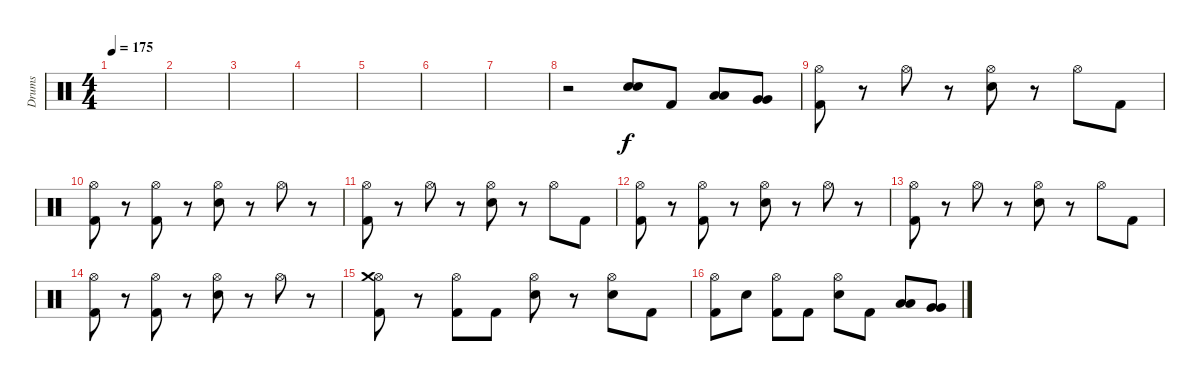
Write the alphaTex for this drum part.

\track ("Drums" "Drums") {instrument percussion}
\staff {score}
\articulation defaults
\ts (4 4)
\tempo 175
\clef neutral
\ks c
|
|
|
|
|
|
|
r.2 ("Electric Snare (hit)" "Electric Snare (hit)").8 "Kick (hit) 2".8 ("Low Tom (hit)" "Low Tom (hit)").8 ("Very Low Tom (hit)" "Very Low Tom (hit)").8 |
("Kick (hit) 2" "Hi-Hat (open)").8 r.8 "Hi-Hat (open)".8 r.8 ("Electric Snare (hit)" "Hi-Hat (open)").8 r.8 "Hi-Hat (open)".8 "Kick (hit) 2".8 |
("Kick (hit) 2" "Hi-Hat (open)").8 r.8 ("Kick (hit) 2" "Hi-Hat (open)").8 r.8 ("Electric Snare (hit)" "Hi-Hat (open)").8 r.8 "Hi-Hat (open)".8 r.8 |
("Kick (hit) 2" "Hi-Hat (open)").8 r.8 "Hi-Hat (open)".8 r.8 ("Electric Snare (hit)" "Hi-Hat (open)").8 r.8 "Hi-Hat (open)".8 "Kick (hit) 2".8 |
("Kick (hit) 2" "Hi-Hat (open)").8 r.8 ("Kick (hit) 2" "Hi-Hat (open)").8 r.8 ("Electric Snare (hit)" "Hi-Hat (open)").8 r.8 "Hi-Hat (open)".8 r.8 |
("Kick (hit) 2" "Hi-Hat (open)").8 r.8 "Hi-Hat (open)".8 r.8 ("Electric Snare (hit)" "Hi-Hat (open)").8 r.8 "Hi-Hat (open)".8 "Kick (hit) 2".8 |
("Kick (hit) 2" "Hi-Hat (open)").8 r.8 ("Kick (hit) 2" "Hi-Hat (open)").8 r.8 ("Electric Snare (hit)" "Hi-Hat (open)").8 r.8 "Hi-Hat (open)".8 r.8 |
("Kick (hit) 2" "Hi-Hat (open)" "Crash medium (hit)").8 r.8 ("Kick (hit) 2" "Hi-Hat (open)").8 "Kick (hit) 2".8 ("Electric Snare (hit)" "Hi-Hat (open)").8 r.8 ("Electric Snare (hit)" "Hi-Hat (open)").8 "Kick (hit) 2".8 |
("Kick (hit) 2" "Hi-Hat (open)").8 "Electric Snare (hit)".8 ("Kick (hit) 2" "Hi-Hat (open)").8 "Kick (hit) 2".8 ("Electric Snare (hit)" "Hi-Hat (open)").8 "Kick (hit) 2".8 ("Low Tom (hit)" "Low Tom (hit)").8 ("Very Low Tom (hit)" "Very Low Tom (hit)").8
